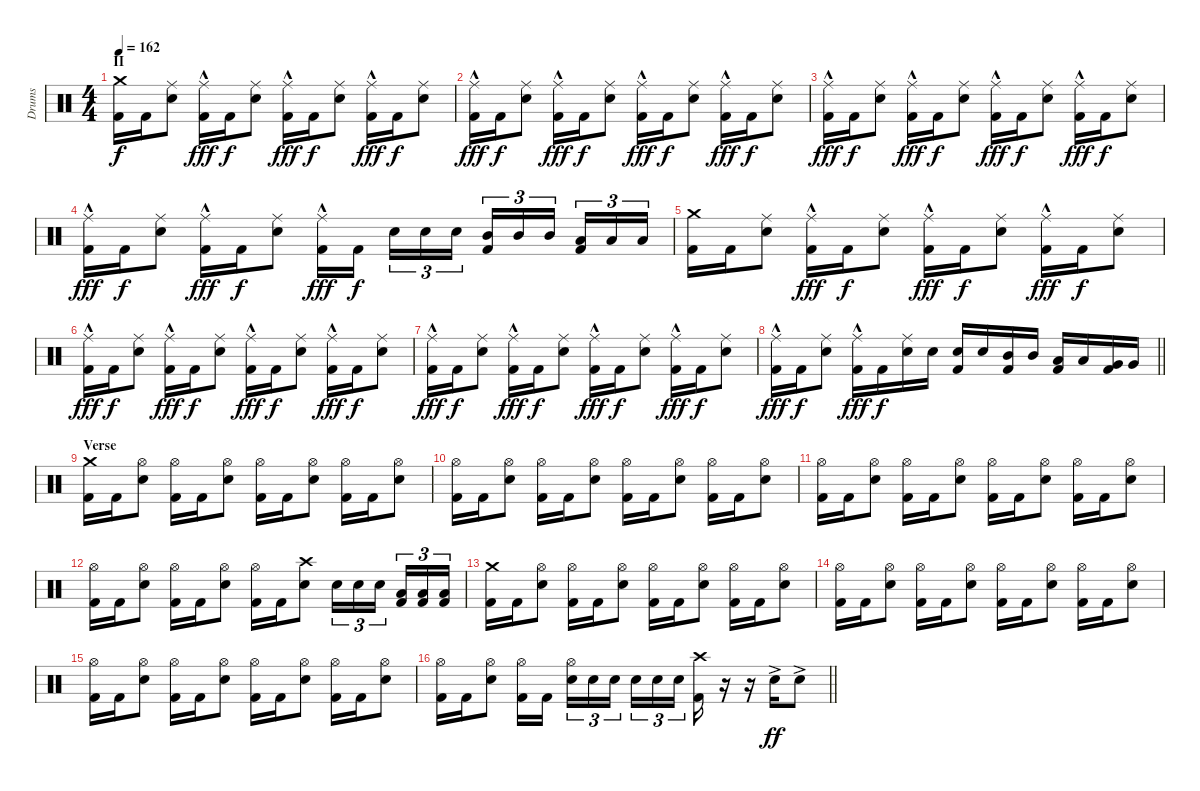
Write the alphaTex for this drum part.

\track ("Drums" "Drums") {instrument percussion}
\staff {score}
\articulation defaults
\ts (4 4)
\section ("" "II")
\tempo 162
\clef neutral
\ks c
("Crash medium (hit)" "Kick (hit) 2").16{dy f} "Kick (hit) 2".16 ("Ride (middle)" "Electric Snare (hit)").8 ("Ride (middle)"{hac} "Kick (hit) 2").16{dy fff} "Kick (hit) 2".16{dy f} ("Ride (middle)" "Electric Snare (hit)").8 ("Ride (middle)"{hac} "Kick (hit) 2").16{dy fff} "Kick (hit) 2".16{dy f} ("Ride (middle)" "Electric Snare (hit)").8 ("Ride (middle)"{hac} "Kick (hit) 2").16{dy fff} "Kick (hit) 2".16{dy f} ("Ride (middle)" "Electric Snare (hit)").8 |
("Ride (middle)"{hac} "Kick (hit) 2").16{dy fff} "Kick (hit) 2".16{dy f} ("Ride (middle)" "Electric Snare (hit)").8 ("Ride (middle)"{hac} "Kick (hit) 2").16{dy fff} "Kick (hit) 2".16{dy f} ("Ride (middle)" "Electric Snare (hit)").8 ("Ride (middle)"{hac} "Kick (hit) 2").16{dy fff} "Kick (hit) 2".16{dy f} ("Ride (middle)" "Electric Snare (hit)").8 ("Ride (middle)"{hac} "Kick (hit) 2").16{dy fff} "Kick (hit) 2".16{dy f} ("Ride (middle)" "Electric Snare (hit)").8 |
("Ride (middle)"{hac} "Kick (hit) 2").16{dy fff} "Kick (hit) 2".16{dy f} ("Ride (middle)" "Electric Snare (hit)").8 ("Ride (middle)"{hac} "Kick (hit) 2").16{dy fff} "Kick (hit) 2".16{dy f} ("Ride (middle)" "Electric Snare (hit)").8 ("Ride (middle)"{hac} "Kick (hit) 2").16{dy fff} "Kick (hit) 2".16{dy f} ("Ride (middle)" "Electric Snare (hit)").8 ("Ride (middle)"{hac} "Kick (hit) 2").16{dy fff} "Kick (hit) 2".16{dy f} ("Ride (middle)" "Electric Snare (hit)").8 |
("Ride (middle)"{hac} "Kick (hit) 2").16{dy fff} "Kick (hit) 2".16{dy f} ("Ride (middle)" "Electric Snare (hit)").8 ("Ride (middle)"{hac} "Kick (hit) 2").16{dy fff} "Kick (hit) 2".16{dy f} ("Ride (middle)" "Electric Snare (hit)").8 ("Ride (middle)"{hac} "Kick (hit) 2").16{dy fff} "Kick (hit) 2".16{dy f beam splitsecondary} "Electric Snare (hit)".16{tu (3 2)} "Electric Snare (hit)".16{tu (3 2)} "Electric Snare (hit)".16{tu (3 2)} ("Mid Tom (hit)" "Kick (hit) 2").16{tu (3 2)} "Mid Tom (hit)".16{tu (3 2)} "Mid Tom (hit)".16{tu (3 2) beam splitsecondary} ("Low Tom (hit)" "Kick (hit) 2").16{tu (3 2)} "Low Tom (hit)".16{tu (3 2)} "Low Tom (hit)".16{tu (3 2)} |
("Crash medium (hit)" "Kick (hit) 2").16 "Kick (hit) 2".16 ("Ride (middle)" "Electric Snare (hit)").8 ("Ride (middle)"{hac} "Kick (hit) 2").16{dy fff} "Kick (hit) 2".16{dy f} ("Ride (middle)" "Electric Snare (hit)").8 ("Ride (middle)"{hac} "Kick (hit) 2").16{dy fff} "Kick (hit) 2".16{dy f} ("Ride (middle)" "Electric Snare (hit)").8 ("Ride (middle)"{hac} "Kick (hit) 2").16{dy fff} "Kick (hit) 2".16{dy f} ("Ride (middle)" "Electric Snare (hit)").8 |
("Ride (middle)"{hac} "Kick (hit) 2").16{dy fff} "Kick (hit) 2".16{dy f} ("Ride (middle)" "Electric Snare (hit)").8 ("Ride (middle)"{hac} "Kick (hit) 2").16{dy fff} "Kick (hit) 2".16{dy f} ("Ride (middle)" "Electric Snare (hit)").8 ("Ride (middle)"{hac} "Kick (hit) 2").16{dy fff} "Kick (hit) 2".16{dy f} ("Ride (middle)" "Electric Snare (hit)").8 ("Ride (middle)"{hac} "Kick (hit) 2").16{dy fff} "Kick (hit) 2".16{dy f} ("Ride (middle)" "Electric Snare (hit)").8 |
("Ride (middle)"{hac} "Kick (hit) 2").16{dy fff} "Kick (hit) 2".16{dy f} ("Ride (middle)" "Electric Snare (hit)").8 ("Ride (middle)"{hac} "Kick (hit) 2").16{dy fff} "Kick (hit) 2".16{dy f} ("Ride (middle)" "Electric Snare (hit)").8 ("Ride (middle)"{hac} "Kick (hit) 2").16{dy fff} "Kick (hit) 2".16{dy f} ("Ride (middle)" "Electric Snare (hit)").8 ("Ride (middle)"{hac} "Kick (hit) 2").16{dy fff} "Kick (hit) 2".16{dy f} ("Ride (middle)" "Electric Snare (hit)").8 |
\barLineRight lightlight
("Ride (middle)"{hac} "Kick (hit) 2").16{dy fff} "Kick (hit) 2".16{dy f} ("Ride (middle)" "Electric Snare (hit)").8 ("Ride (middle)"{hac} "Kick (hit) 2").16{dy fff} "Kick (hit) 2".16{dy f} ("Ride (middle)" "Electric Snare (hit)").16 "Electric Snare (hit)".16 ("Electric Snare (hit)" "Kick (hit) 2").16 "Electric Snare (hit)".16 ("Mid Tom (hit)" "Kick (hit) 2").16 "Mid Tom (hit)".16 ("Low Tom (hit)" "Kick (hit) 2").16 "Low Tom (hit)".16 ("Very Low Tom (hit)" "Kick (hit) 2").16 "Very Low Tom (hit)".16 |
\section ("" "Verse")
("Crash medium (hit)" "Kick (hit) 2").16 "Kick (hit) 2".16 ("Hi-Hat (open)" "Electric Snare (hit)").8 ("Hi-Hat (open)" "Kick (hit) 2").16 "Kick (hit) 2".16 ("Hi-Hat (open)" "Electric Snare (hit)").8 ("Hi-Hat (open)" "Kick (hit) 2").16 "Kick (hit) 2".16 ("Hi-Hat (open)" "Electric Snare (hit)").8 ("Hi-Hat (open)" "Kick (hit) 2").16 "Kick (hit) 2".16 ("Hi-Hat (open)" "Electric Snare (hit)").8 |
("Hi-Hat (open)" "Kick (hit) 2").16 "Kick (hit) 2".16 ("Hi-Hat (open)" "Electric Snare (hit)").8 ("Hi-Hat (open)" "Kick (hit) 2").16 "Kick (hit) 2".16 ("Hi-Hat (open)" "Electric Snare (hit)").8 ("Hi-Hat (open)" "Kick (hit) 2").16 "Kick (hit) 2".16 ("Hi-Hat (open)" "Electric Snare (hit)").8 ("Hi-Hat (open)" "Kick (hit) 2").16 "Kick (hit) 2".16 ("Hi-Hat (open)" "Electric Snare (hit)").8 |
("Hi-Hat (open)" "Kick (hit) 2").16 "Kick (hit) 2".16 ("Hi-Hat (open)" "Electric Snare (hit)").8 ("Hi-Hat (open)" "Kick (hit) 2").16 "Kick (hit) 2".16 ("Hi-Hat (open)" "Electric Snare (hit)").8 ("Hi-Hat (open)" "Kick (hit) 2").16 "Kick (hit) 2".16 ("Hi-Hat (open)" "Electric Snare (hit)").8 ("Hi-Hat (open)" "Kick (hit) 2").16 "Kick (hit) 2".16 ("Hi-Hat (open)" "Electric Snare (hit)").8 |
("Hi-Hat (open)" "Kick (hit) 2").16 "Kick (hit) 2".16 ("Hi-Hat (open)" "Electric Snare (hit)").8 ("Hi-Hat (open)" "Kick (hit) 2").16 "Kick (hit) 2".16 ("Hi-Hat (open)" "Electric Snare (hit)").8 ("Hi-Hat (open)" "Kick (hit) 2").16 "Kick (hit) 2".16 ("Crash high (hit)" "Electric Snare (hit)").8 "Electric Snare (hit)".16{tu (3 2)} "Electric Snare (hit)".16{tu (3 2)} "Electric Snare (hit)".16{tu (3 2) beam splitsecondary} ("Low Tom (hit)" "Kick (hit) 2").16{tu (3 2)} ("Low Tom (hit)" "Kick (hit) 2").16{tu (3 2)} ("Low Tom (hit)" "Kick (hit) 2").16{tu (3 2)} |
("Crash medium (hit)" "Kick (hit) 2").16 "Kick (hit) 2".16 ("Hi-Hat (open)" "Electric Snare (hit)").8 ("Hi-Hat (open)" "Kick (hit) 2").16 "Kick (hit) 2".16 ("Hi-Hat (open)" "Electric Snare (hit)").8 ("Hi-Hat (open)" "Kick (hit) 2").16 "Kick (hit) 2".16 ("Hi-Hat (open)" "Electric Snare (hit)").8 ("Hi-Hat (open)" "Kick (hit) 2").16 "Kick (hit) 2".16 ("Hi-Hat (open)" "Electric Snare (hit)").8 |
("Hi-Hat (open)" "Kick (hit) 2").16 "Kick (hit) 2".16 ("Hi-Hat (open)" "Electric Snare (hit)").8 ("Hi-Hat (open)" "Kick (hit) 2").16 "Kick (hit) 2".16 ("Hi-Hat (open)" "Electric Snare (hit)").8 ("Hi-Hat (open)" "Kick (hit) 2").16 "Kick (hit) 2".16 ("Hi-Hat (open)" "Electric Snare (hit)").8 ("Hi-Hat (open)" "Kick (hit) 2").16 "Kick (hit) 2".16 ("Hi-Hat (open)" "Electric Snare (hit)").8 |
("Hi-Hat (open)" "Kick (hit) 2").16 "Kick (hit) 2".16 ("Hi-Hat (open)" "Electric Snare (hit)").8 ("Hi-Hat (open)" "Kick (hit) 2").16 "Kick (hit) 2".16 ("Hi-Hat (open)" "Electric Snare (hit)").8 ("Hi-Hat (open)" "Kick (hit) 2").16 "Kick (hit) 2".16 ("Hi-Hat (open)" "Electric Snare (hit)").8 ("Hi-Hat (open)" "Kick (hit) 2").16 "Kick (hit) 2".16 ("Hi-Hat (open)" "Electric Snare (hit)").8 |
\barLineRight lightlight
("Hi-Hat (open)" "Kick (hit) 2").16 "Kick (hit) 2".16 ("Hi-Hat (open)" "Electric Snare (hit)").8 ("Hi-Hat (open)" "Kick (hit) 2").16 "Kick (hit) 2".16{beam splitsecondary} ("Hi-Hat (open)" "Electric Snare (hit)").16{tu (3 2)} "Electric Snare (hit)".16{tu (3 2)} "Electric Snare (hit)".16{tu (3 2)} "Electric Snare (hit)".16{tu (3 2)} "Electric Snare (hit)".16{tu (3 2)} "Electric Snare (hit)".16{tu (3 2) beam splitsecondary} ("Crash high (hit)" "Kick (hit) 2").16 r.16 r.16 "Electric Snare (hit)"{ac}.16{dy ff} "Electric Snare (hit)"{ac}.8
